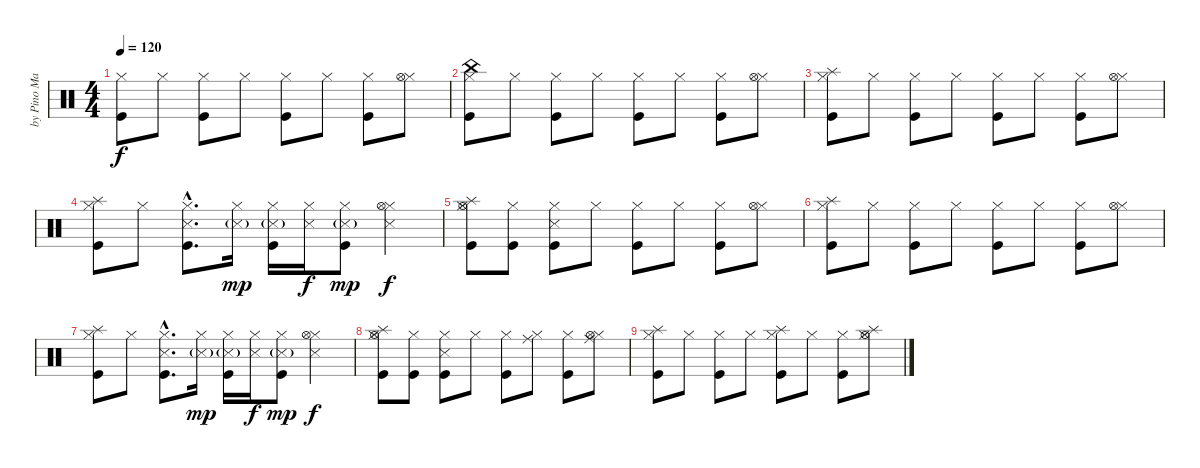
\track ("by Pino Mariconda - e Gianni De Vita" "by Pino Ma") {instrument percussion}
\staff {score}
\articulation defaults
\ts (4 4)
\tempo 120
\clef neutral
\ks c
("Hi-Hat (closed)" "Kick (hit)").8{dy f} "Hi-Hat (closed)".8 ("Hi-Hat (closed)" "Kick (hit)").8 "Hi-Hat (closed)".8 ("Hi-Hat (closed)" "Kick (hit)").8 "Hi-Hat (closed)".8 ("Hi-Hat (closed)" "Kick (hit)").8 ("Hi-Hat (closed)" "Hi-Hat (open)").8 |
("China (hit)" "Hi-Hat (closed)" "Kick (hit)").8 "Hi-Hat (closed)".8 ("Hi-Hat (closed)" "Kick (hit)").8 "Hi-Hat (closed)".8 ("Hi-Hat (closed)" "Kick (hit)").8 "Hi-Hat (closed)".8 ("Hi-Hat (closed)" "Kick (hit)").8 ("Hi-Hat (closed)" "Hi-Hat (open)").8 |
("Splash (hit)" "Hi-Hat (closed)" "Kick (hit)").8 "Hi-Hat (closed)".8 ("Hi-Hat (closed)" "Kick (hit)").8 "Hi-Hat (closed)".8 ("Hi-Hat (closed)" "Kick (hit)").8 "Hi-Hat (closed)".8 ("Hi-Hat (closed)" "Kick (hit)").8 ("Hi-Hat (closed)" "Hi-Hat (open)").8 |
("Splash (hit)" "Hi-Hat (closed)" "Kick (hit)").8 "Hi-Hat (closed)".8 ("Hi-Hat (closed)"{hac} "Kick (hit)"{hac} "Snare (side stick) 3"{hac}).8{d} ("Hi-Hat (closed)" "Snare (side stick) 3"{g}).16{dy mp} ("Hi-Hat (closed)" "Kick (hit)" "Snare (side stick) 3"{g}).16 ("Hi-Hat (closed)" "Snare (side stick) 3").16{dy f} ("Hi-Hat (closed)" "Kick (hit)" "Snare (side stick) 3"{g}).8{dy mp} ("Hi-Hat (closed)" "Hi-Hat (open)" "Snare (side stick) 3").4{dy f} |
("Splash (hit)" "Hi-Hat (closed)" "Kick (hit)" "Hi-Hat (open)").8 ("Hi-Hat (closed)" "Kick (hit)").8 ("Hi-Hat (closed)" "Kick (hit)" "Snare (side stick) 3").8 "Hi-Hat (closed)".8 ("Hi-Hat (closed)" "Kick (hit)").8 "Hi-Hat (closed)".8 ("Hi-Hat (closed)" "Kick (hit)").8 ("Hi-Hat (closed)" "Hi-Hat (open)").8 |
("Splash (hit)" "Hi-Hat (closed)" "Kick (hit)").8 "Hi-Hat (closed)".8 ("Hi-Hat (closed)" "Kick (hit)").8 "Hi-Hat (closed)".8 ("Hi-Hat (closed)" "Kick (hit)").8 "Hi-Hat (closed)".8 ("Hi-Hat (closed)" "Kick (hit)").8 ("Hi-Hat (closed)" "Hi-Hat (open)").8 |
("Splash (hit)" "Hi-Hat (closed)" "Kick (hit)").8 "Hi-Hat (closed)".8 ("Hi-Hat (closed)"{hac} "Kick (hit)"{hac} "Snare (side stick) 3"{hac}).8{d} ("Hi-Hat (closed)" "Snare (side stick) 3"{g}).16{dy mp} ("Hi-Hat (closed)" "Kick (hit)" "Snare (side stick) 3"{g}).16 ("Hi-Hat (closed)" "Snare (side stick) 3").16{dy f} ("Hi-Hat (closed)" "Kick (hit)" "Snare (side stick) 3"{g}).8{dy mp} ("Hi-Hat (closed)" "Hi-Hat (open)" "Snare (side stick) 3").4{dy f} |
("Splash (hit)" "Hi-Hat (closed)" "Kick (hit)" "Hi-Hat (open)").8 ("Hi-Hat (closed)" "Kick (hit)").8 ("Hi-Hat (closed)" "Kick (hit)" "Snare (side stick) 3").8 "Hi-Hat (closed)".8 ("Hi-Hat (closed)" "Kick (hit)").8 ("Ride (middle)" "Hi-Hat (closed)").8 ("Hi-Hat (closed)" "Kick (hit)").8 ("Ride (middle)" "Hi-Hat (closed)" "Hi-Hat (open)").8 |
("Splash (hit)" "Hi-Hat (closed)" "Kick (hit)").8 "Hi-Hat (closed)".8 ("Hi-Hat (closed)" "Kick (hit)").8 "Hi-Hat (closed)".8 ("Splash (hit)" "Hi-Hat (closed)" "Kick (hit)").8 "Hi-Hat (closed)".8 ("Hi-Hat (closed)" "Kick (hit)").8 ("Splash (hit)" "Hi-Hat (closed)" "Hi-Hat (open)").8
